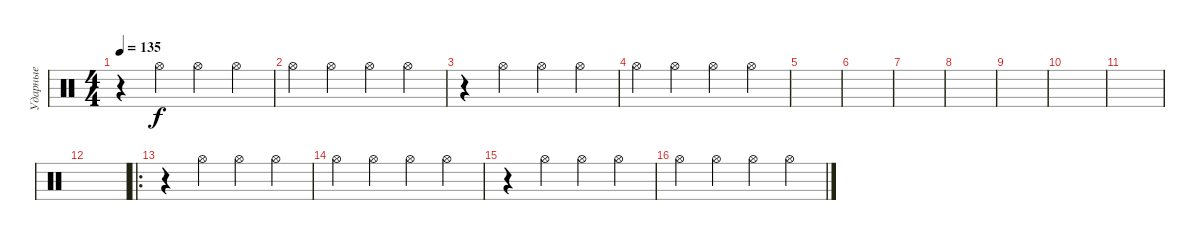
\track ("Ударные" "Ударные") {instrument percussion}
\staff {score}
\articulation defaults
\ts (4 4)
\tempo 135
\clef neutral
\ks c
r.4{dy f} "Hi-Hat (open)".4 "Hi-Hat (open)".4 "Hi-Hat (open)".4 |
"Hi-Hat (open)".4 "Hi-Hat (open)".4 "Hi-Hat (open)".4 "Hi-Hat (open)".4 |
r.4 "Hi-Hat (open)".4 "Hi-Hat (open)".4 "Hi-Hat (open)".4 |
"Hi-Hat (open)".4 "Hi-Hat (open)".4 "Hi-Hat (open)".4 "Hi-Hat (open)".4 |
|
|
|
|
|
|
|
|
\ro
r.4 "Hi-Hat (open)".4 "Hi-Hat (open)".4 "Hi-Hat (open)".4 |
"Hi-Hat (open)".4 "Hi-Hat (open)".4 "Hi-Hat (open)".4 "Hi-Hat (open)".4 |
r.4 "Hi-Hat (open)".4 "Hi-Hat (open)".4 "Hi-Hat (open)".4 |
"Hi-Hat (open)".4 "Hi-Hat (open)".4 "Hi-Hat (open)".4 "Hi-Hat (open)".4
